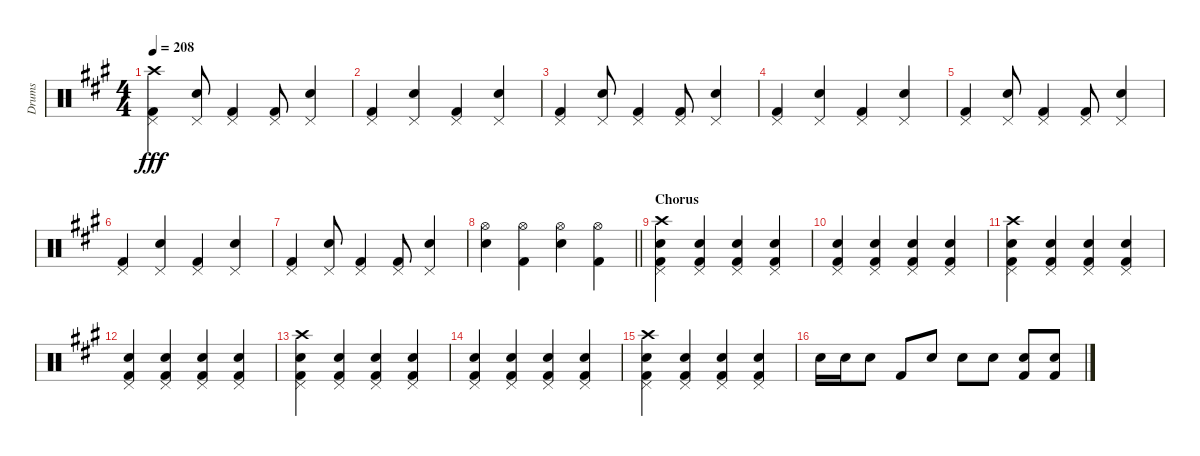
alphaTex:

\track ("Drums" "Drums") {instrument percussion}
\staff {score}
\articulation defaults
\ts (4 4)
\tempo 208
\clef neutral
\ks a
("Crash high (hit)" "Pedal Hi-Hat (hit)" "Kick (hit) 2").4{dy fff} ("Pedal Hi-Hat (hit)" "Snare (hit) 2").8 ("Pedal Hi-Hat (hit)" "Kick (hit) 2").4 ("Pedal Hi-Hat (hit)" "Kick (hit) 2").8 ("Pedal Hi-Hat (hit)" "Snare (hit) 2").4 |
("Pedal Hi-Hat (hit)" "Kick (hit) 2").4 ("Pedal Hi-Hat (hit)" "Snare (hit) 2").4 ("Pedal Hi-Hat (hit)" "Kick (hit) 2").4 ("Pedal Hi-Hat (hit)" "Snare (hit) 2").4 |
("Pedal Hi-Hat (hit)" "Kick (hit) 2").4 ("Pedal Hi-Hat (hit)" "Snare (hit) 2").8 ("Pedal Hi-Hat (hit)" "Kick (hit) 2").4 ("Pedal Hi-Hat (hit)" "Kick (hit) 2").8 ("Pedal Hi-Hat (hit)" "Snare (hit) 2").4 |
("Pedal Hi-Hat (hit)" "Kick (hit) 2").4 ("Pedal Hi-Hat (hit)" "Snare (hit) 2").4 ("Pedal Hi-Hat (hit)" "Kick (hit) 2").4 ("Pedal Hi-Hat (hit)" "Snare (hit) 2").4 |
("Pedal Hi-Hat (hit)" "Kick (hit) 2").4 ("Pedal Hi-Hat (hit)" "Snare (hit) 2").8 ("Pedal Hi-Hat (hit)" "Kick (hit) 2").4 ("Pedal Hi-Hat (hit)" "Kick (hit) 2").8 ("Pedal Hi-Hat (hit)" "Snare (hit) 2").4 |
("Pedal Hi-Hat (hit)" "Kick (hit) 2").4 ("Pedal Hi-Hat (hit)" "Snare (hit) 2").4 ("Pedal Hi-Hat (hit)" "Kick (hit) 2").4 ("Pedal Hi-Hat (hit)" "Snare (hit) 2").4 |
("Pedal Hi-Hat (hit)" "Kick (hit) 2").4 ("Pedal Hi-Hat (hit)" "Snare (hit) 2").8 ("Pedal Hi-Hat (hit)" "Kick (hit) 2").4 ("Pedal Hi-Hat (hit)" "Kick (hit) 2").8 ("Pedal Hi-Hat (hit)" "Snare (hit) 2").4 |
\barLineRight lightlight
("Hi-Hat (open)" "Snare (hit) 2").4 ("Hi-Hat (open)" "Kick (hit) 2").4 ("Hi-Hat (open)" "Snare (hit) 2").4 ("Hi-Hat (open)" "Kick (hit) 2").4 |
\section ("" "Chorus")
("Crash high (hit)" "Pedal Hi-Hat (hit)" "Snare (hit) 2" "Kick (hit) 2").4 ("Pedal Hi-Hat (hit)" "Snare (hit) 2" "Kick (hit) 2").4 ("Pedal Hi-Hat (hit)" "Snare (hit) 2" "Kick (hit) 2").4 ("Pedal Hi-Hat (hit)" "Snare (hit) 2" "Kick (hit) 2").4 |
("Pedal Hi-Hat (hit)" "Snare (hit) 2" "Kick (hit) 2").4 ("Pedal Hi-Hat (hit)" "Snare (hit) 2" "Kick (hit) 2").4 ("Pedal Hi-Hat (hit)" "Snare (hit) 2" "Kick (hit) 2").4 ("Pedal Hi-Hat (hit)" "Snare (hit) 2" "Kick (hit) 2").4 |
("Crash high (hit)" "Pedal Hi-Hat (hit)" "Snare (hit) 2" "Kick (hit) 2").4 ("Pedal Hi-Hat (hit)" "Snare (hit) 2" "Kick (hit) 2").4 ("Pedal Hi-Hat (hit)" "Snare (hit) 2" "Kick (hit) 2").4 ("Pedal Hi-Hat (hit)" "Snare (hit) 2" "Kick (hit) 2").4 |
("Pedal Hi-Hat (hit)" "Snare (hit) 2" "Kick (hit) 2").4 ("Pedal Hi-Hat (hit)" "Snare (hit) 2" "Kick (hit) 2").4 ("Pedal Hi-Hat (hit)" "Snare (hit) 2" "Kick (hit) 2").4 ("Pedal Hi-Hat (hit)" "Snare (hit) 2" "Kick (hit) 2").4 |
("Crash high (hit)" "Pedal Hi-Hat (hit)" "Snare (hit) 2" "Kick (hit) 2").4 ("Pedal Hi-Hat (hit)" "Snare (hit) 2" "Kick (hit) 2").4 ("Pedal Hi-Hat (hit)" "Snare (hit) 2" "Kick (hit) 2").4 ("Pedal Hi-Hat (hit)" "Snare (hit) 2" "Kick (hit) 2").4 |
("Pedal Hi-Hat (hit)" "Snare (hit) 2" "Kick (hit) 2").4 ("Pedal Hi-Hat (hit)" "Snare (hit) 2" "Kick (hit) 2").4 ("Pedal Hi-Hat (hit)" "Snare (hit) 2" "Kick (hit) 2").4 ("Pedal Hi-Hat (hit)" "Snare (hit) 2" "Kick (hit) 2").4 |
("Crash high (hit)" "Pedal Hi-Hat (hit)" "Snare (hit) 2" "Kick (hit) 2").4 ("Pedal Hi-Hat (hit)" "Snare (hit) 2" "Kick (hit) 2").4 ("Pedal Hi-Hat (hit)" "Snare (hit) 2" "Kick (hit) 2").4 ("Pedal Hi-Hat (hit)" "Snare (hit) 2" "Kick (hit) 2").4 |
"Snare (hit) 2".16 "Snare (hit) 2".16 "Snare (hit) 2".8 "Kick (hit) 2".8 "Snare (hit) 2".8 "Snare (hit) 2".8 "Snare (hit) 2".8 ("Snare (hit) 2" "Kick (hit) 2").8 ("Snare (hit) 2" "Kick (hit) 2").8
